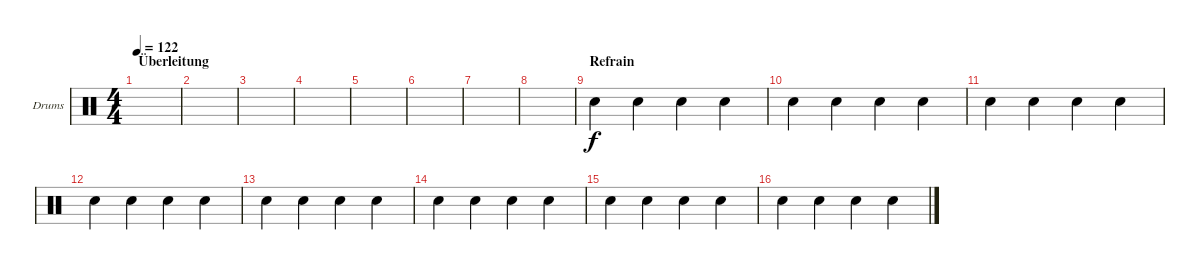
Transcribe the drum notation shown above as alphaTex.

\defaultSystemsLayout 4
\bracketExtendMode groupsimilarinstruments
\firstSystemTrackNameOrientation horizontal
\otherSystemsTrackNameOrientation horizontal
\track ("Drumkit" "Drums") {instrument percussion}
\staff {score}
\articulation defaults
\ts (4 4)
\section ("" "Überleitung")
\scale
0.468023
\tempo 122
\accidentals auto
\clef neutral
\ottava regular
\simile none
\ks c
|
|
|
|
|
\scale
0.268041 |
\scale
0.223859 |
\scale
0.270987 |
\section ("" "Refrain")
\scale
0.237113 "Snare (hit) 2".4 "Snare (hit) 2".4 "Snare (hit) 2".4 "Snare (hit) 2".4 |
"Snare (hit) 2".4 "Snare (hit) 2".4 "Snare (hit) 2".4 "Snare (hit) 2".4 |
"Snare (hit) 2".4 "Snare (hit) 2".4 "Snare (hit) 2".4 "Snare (hit) 2".4 |
"Snare (hit) 2".4 "Snare (hit) 2".4 "Snare (hit) 2".4 "Snare (hit) 2".4 |
"Snare (hit) 2".4 "Snare (hit) 2".4 "Snare (hit) 2".4 "Snare (hit) 2".4 |
"Snare (hit) 2".4 "Snare (hit) 2".4 "Snare (hit) 2".4 "Snare (hit) 2".4 |
"Snare (hit) 2".4 "Snare (hit) 2".4 "Snare (hit) 2".4 "Snare (hit) 2".4 |
"Snare (hit) 2".4 "Snare (hit) 2".4 "Snare (hit) 2".4 "Snare (hit) 2".4
